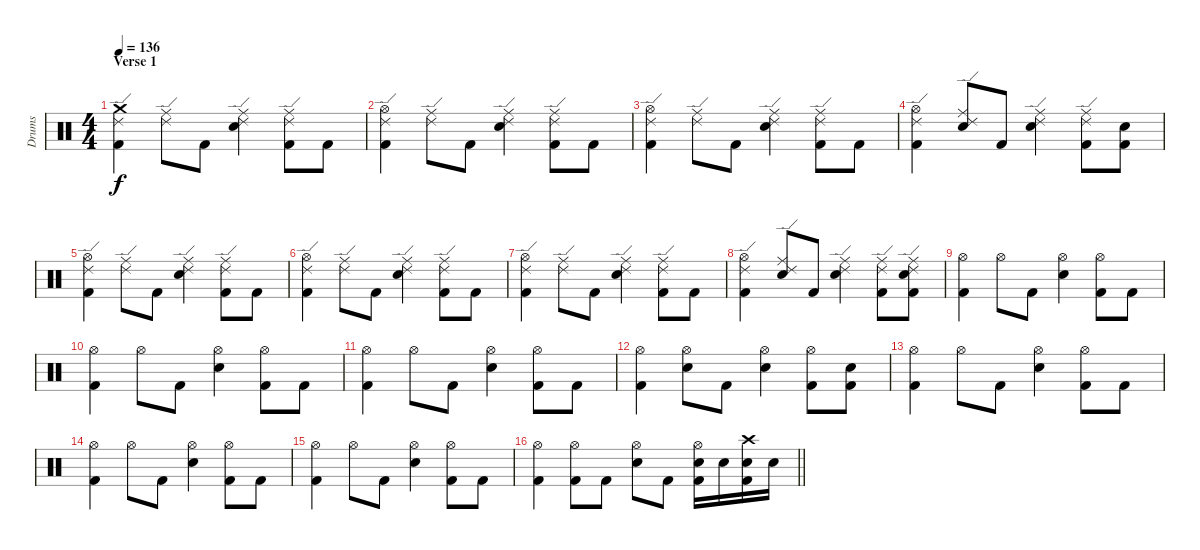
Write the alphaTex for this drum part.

\track ("Drums" "Drums") {instrument percussion}
\staff {score}
\articulation defaults
\ts (4 4)
\section ("" "Verse 1")
\tempo 136
\clef neutral
\ks c
("Crash medium (hit)" "Ride (edge) 2" "Kick (hit) 2").4{dy f} ("Ride (middle)" "Ride (edge) 2").8 "Kick (hit) 2".8 ("Ride (middle)" "Ride (edge) 2" "Snare (hit) 2").4 ("Ride (middle)" "Ride (edge) 2" "Kick (hit) 2").8 "Kick (hit) 2".8 |
("Hi-Hat (open)" "Ride (edge) 2" "Kick (hit) 2").4 ("Ride (middle)" "Ride (edge) 2").8 "Kick (hit) 2".8 ("Ride (middle)" "Ride (edge) 2" "Snare (hit) 2").4 ("Ride (middle)" "Ride (edge) 2" "Kick (hit) 2").8 "Kick (hit) 2".8 |
("Hi-Hat (open)" "Ride (edge) 2" "Kick (hit) 2").4 ("Ride (middle)" "Ride (edge) 2").8 "Kick (hit) 2".8 ("Ride (middle)" "Ride (edge) 2" "Snare (hit) 2").4 ("Ride (middle)" "Ride (edge) 2" "Kick (hit) 2").8 "Kick (hit) 2".8 |
("Hi-Hat (open)" "Ride (edge) 2" "Kick (hit) 2").4 ("Ride (middle)" "Ride (edge) 2" "Snare (hit) 2").8 "Kick (hit) 2".8 ("Ride (middle)" "Ride (edge) 2" "Snare (hit) 2").4 ("Ride (middle)" "Ride (edge) 2" "Kick (hit) 2").8 ("Snare (hit) 2" "Kick (hit) 2").8 |
("Hi-Hat (open)" "Ride (edge) 2" "Kick (hit) 2").4 ("Ride (middle)" "Ride (edge) 2").8 "Kick (hit) 2".8 ("Ride (middle)" "Ride (edge) 2" "Snare (hit) 2").4 ("Ride (middle)" "Ride (edge) 2" "Kick (hit) 2").8 "Kick (hit) 2".8 |
("Hi-Hat (open)" "Ride (edge) 2" "Kick (hit) 2").4 ("Ride (middle)" "Ride (edge) 2").8 "Kick (hit) 2".8 ("Ride (middle)" "Ride (edge) 2" "Snare (hit) 2").4 ("Ride (middle)" "Ride (edge) 2" "Kick (hit) 2").8 "Kick (hit) 2".8 |
("Hi-Hat (open)" "Ride (edge) 2" "Kick (hit) 2").4 ("Ride (middle)" "Ride (edge) 2").8 "Kick (hit) 2".8 ("Ride (middle)" "Ride (edge) 2" "Snare (hit) 2").4 ("Ride (middle)" "Ride (edge) 2" "Kick (hit) 2").8 "Kick (hit) 2".8 |
("Hi-Hat (open)" "Ride (edge) 2" "Kick (hit) 2").4 ("Ride (middle)" "Ride (edge) 2" "Snare (hit) 2").8 "Kick (hit) 2".8 ("Ride (middle)" "Ride (edge) 2" "Snare (hit) 2").4 ("Ride (middle)" "Ride (edge) 2" "Kick (hit) 2").8 ("Ride (middle)" "Ride (edge) 2" "Snare (hit) 2" "Kick (hit) 2").8 |
("Hi-Hat (open)" "Kick (hit) 2").4 "Hi-Hat (open)".8 "Kick (hit) 2".8 ("Hi-Hat (open)" "Snare (hit) 2").4 ("Hi-Hat (open)" "Kick (hit) 2").8 "Kick (hit) 2".8 |
("Hi-Hat (open)" "Kick (hit) 2").4 "Hi-Hat (open)".8 "Kick (hit) 2".8 ("Hi-Hat (open)" "Snare (hit) 2").4 ("Hi-Hat (open)" "Kick (hit) 2").8 "Kick (hit) 2".8 |
("Hi-Hat (open)" "Kick (hit) 2").4 "Hi-Hat (open)".8 "Kick (hit) 2".8 ("Hi-Hat (open)" "Snare (hit) 2").4 ("Hi-Hat (open)" "Kick (hit) 2").8 "Kick (hit) 2".8 |
("Hi-Hat (open)" "Kick (hit) 2").4 ("Hi-Hat (open)" "Snare (hit) 2").8 "Kick (hit) 2".8 ("Hi-Hat (open)" "Snare (hit) 2").4 ("Hi-Hat (open)" "Kick (hit) 2").8 ("Snare (hit) 2" "Kick (hit) 2").8 |
("Hi-Hat (open)" "Kick (hit) 2").4 "Hi-Hat (open)".8 "Kick (hit) 2".8 ("Hi-Hat (open)" "Snare (hit) 2").4 ("Hi-Hat (open)" "Kick (hit) 2").8 "Kick (hit) 2".8 |
("Hi-Hat (open)" "Kick (hit) 2").4 "Hi-Hat (open)".8 "Kick (hit) 2".8 ("Hi-Hat (open)" "Snare (hit) 2").4 ("Hi-Hat (open)" "Kick (hit) 2").8 "Kick (hit) 2".8 |
("Hi-Hat (open)" "Kick (hit) 2").4 "Hi-Hat (open)".8 "Kick (hit) 2".8 ("Hi-Hat (open)" "Snare (hit) 2").4 ("Hi-Hat (open)" "Kick (hit) 2").8 "Kick (hit) 2".8 |
\barLineRight lightlight
("Hi-Hat (open)" "Kick (hit) 2").4 ("Hi-Hat (open)" "Kick (hit) 2").8 "Kick (hit) 2".8 ("Hi-Hat (open)" "Snare (hit) 2").8 "Kick (hit) 2".8 ("Hi-Hat (open)" "Snare (hit) 2" "Kick (hit) 2").16 "Snare (hit) 2".16 ("Crash high (hit)" "Snare (hit) 2" "Kick (hit) 2").16 "Snare (hit) 2".16
